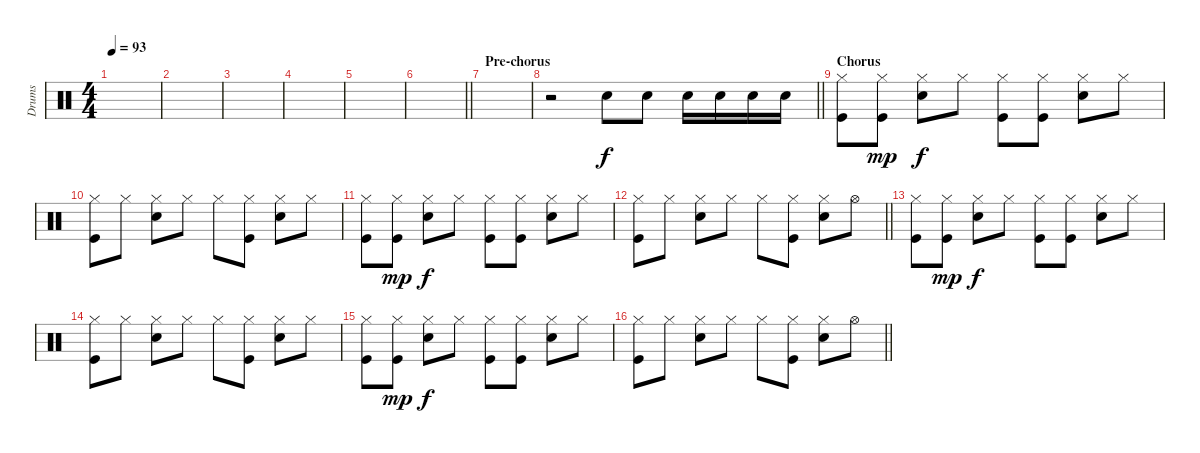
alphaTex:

\track ("Drums" "Drums") {instrument percussion}
\staff {score}
\articulation defaults
\ts (4 4)
\tempo 93
\clef neutral
\ks c
|
|
|
|
|
\barLineRight lightlight
|
\section ("" "Pre-chorus")
|
\barLineRight lightlight
r.2 "Electric Snare (hit)".8 "Electric Snare (hit)".8 "Electric Snare (hit)".16 "Electric Snare (hit)".16 "Electric Snare (hit)".16 "Electric Snare (hit)".16 |
\section ("" "Chorus")
("Hi-Hat (closed)" "Kick (hit)").8 ("Hi-Hat (closed)" "Kick (hit)").8{dy mp} ("Hi-Hat (closed)" "Electric Snare (hit)").8{dy f} "Hi-Hat (closed)".8 ("Hi-Hat (closed)" "Kick (hit)").8 ("Hi-Hat (closed)" "Kick (hit)").8 ("Hi-Hat (closed)" "Electric Snare (hit)").8 "Hi-Hat (closed)".8 |
("Hi-Hat (closed)" "Kick (hit)").8 "Hi-Hat (closed)".8 ("Hi-Hat (closed)" "Electric Snare (hit)").8 "Hi-Hat (closed)".8 "Hi-Hat (closed)".8 ("Hi-Hat (closed)" "Kick (hit)").8 ("Hi-Hat (closed)" "Electric Snare (hit)").8 "Hi-Hat (closed)".8 |
("Hi-Hat (closed)" "Kick (hit)").8 ("Hi-Hat (closed)" "Kick (hit)").8{dy mp} ("Hi-Hat (closed)" "Electric Snare (hit)").8{dy f} "Hi-Hat (closed)".8 ("Hi-Hat (closed)" "Kick (hit)").8 ("Hi-Hat (closed)" "Kick (hit)").8 ("Hi-Hat (closed)" "Electric Snare (hit)").8 "Hi-Hat (closed)".8 |
\barLineRight lightlight
("Hi-Hat (closed)" "Kick (hit)").8 "Hi-Hat (closed)".8 ("Hi-Hat (closed)" "Electric Snare (hit)").8 "Hi-Hat (closed)".8 "Hi-Hat (closed)".8 ("Hi-Hat (closed)" "Kick (hit)").8 ("Hi-Hat (closed)" "Electric Snare (hit)").8 "Hi-Hat (open)".8 |
("Hi-Hat (closed)" "Kick (hit)").8 ("Hi-Hat (closed)" "Kick (hit)").8{dy mp} ("Hi-Hat (closed)" "Electric Snare (hit)").8{dy f} "Hi-Hat (closed)".8 ("Hi-Hat (closed)" "Kick (hit)").8 ("Hi-Hat (closed)" "Kick (hit)").8 ("Hi-Hat (closed)" "Electric Snare (hit)").8 "Hi-Hat (closed)".8 |
("Hi-Hat (closed)" "Kick (hit)").8 "Hi-Hat (closed)".8 ("Hi-Hat (closed)" "Electric Snare (hit)").8 "Hi-Hat (closed)".8 "Hi-Hat (closed)".8 ("Hi-Hat (closed)" "Kick (hit)").8 ("Hi-Hat (closed)" "Electric Snare (hit)").8 "Hi-Hat (closed)".8 |
("Hi-Hat (closed)" "Kick (hit)").8 ("Hi-Hat (closed)" "Kick (hit)").8{dy mp} ("Hi-Hat (closed)" "Electric Snare (hit)").8{dy f} "Hi-Hat (closed)".8 ("Hi-Hat (closed)" "Kick (hit)").8 ("Hi-Hat (closed)" "Kick (hit)").8 ("Hi-Hat (closed)" "Electric Snare (hit)").8 "Hi-Hat (closed)".8 |
\barLineRight lightlight
("Hi-Hat (closed)" "Kick (hit)").8 "Hi-Hat (closed)".8 ("Hi-Hat (closed)" "Electric Snare (hit)").8 "Hi-Hat (closed)".8 "Hi-Hat (closed)".8 ("Hi-Hat (closed)" "Kick (hit)").8 ("Hi-Hat (closed)" "Electric Snare (hit)").8 "Hi-Hat (open)".8
